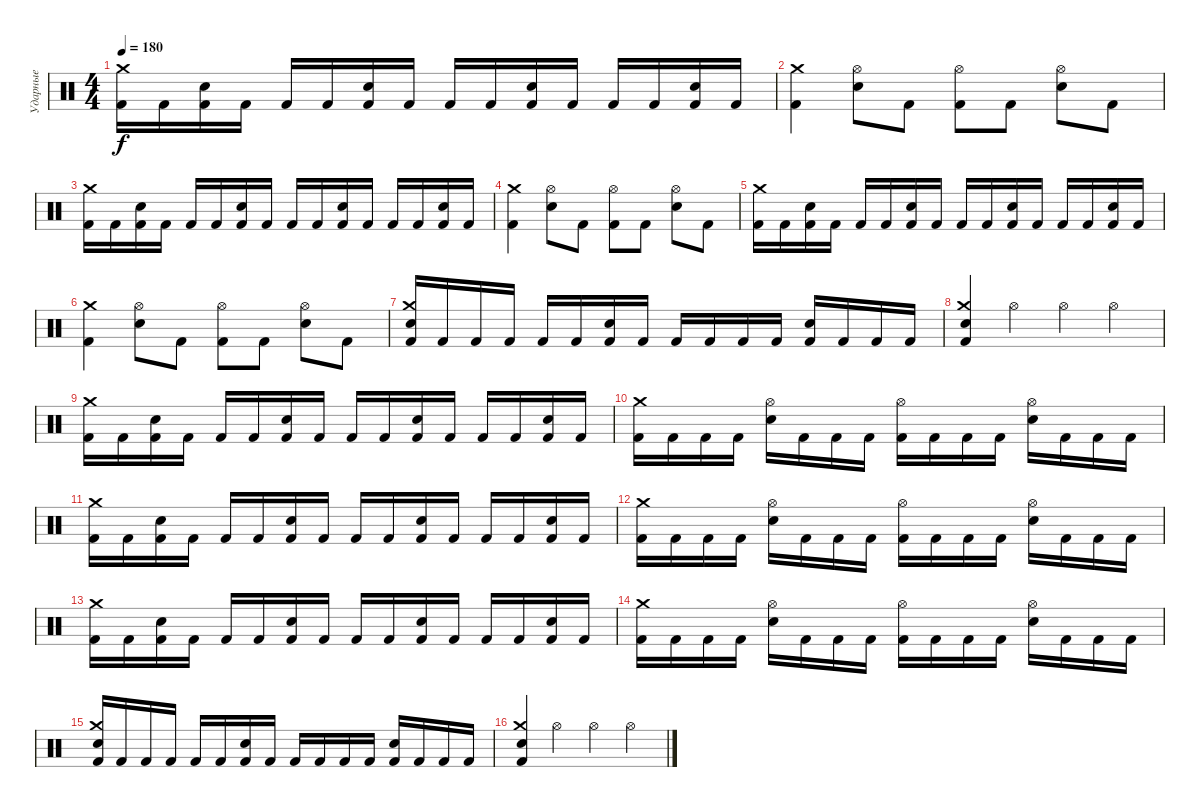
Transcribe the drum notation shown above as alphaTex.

\track ("Ударные" "Ударные") {instrument percussion}
\staff {score}
\articulation defaults
\ts (4 4)
\tempo 180
\clef neutral
\ks c
("Kick (hit) 2" "Crash medium (hit)").16{dy f} "Kick (hit) 2".16 ("Kick (hit) 2" "Electric Snare (hit)").16 "Kick (hit) 2".16 "Kick (hit) 2".16 "Kick (hit) 2".16 ("Kick (hit) 2" "Electric Snare (hit)").16 "Kick (hit) 2".16 "Kick (hit) 2".16 "Kick (hit) 2".16 ("Kick (hit) 2" "Electric Snare (hit)").16 "Kick (hit) 2".16 "Kick (hit) 2".16 "Kick (hit) 2".16 ("Kick (hit) 2" "Electric Snare (hit)").16 "Kick (hit) 2".16 |
("Kick (hit) 2" "Crash medium (hit)").4 ("Electric Snare (hit)" "Hi-Hat (open)").8 "Kick (hit) 2".8 ("Kick (hit) 2" "Hi-Hat (open)").8 "Kick (hit) 2".8 ("Electric Snare (hit)" "Hi-Hat (open)").8 "Kick (hit) 2".8 |
("Kick (hit) 2" "Crash medium (hit)").16 "Kick (hit) 2".16 ("Kick (hit) 2" "Electric Snare (hit)").16 "Kick (hit) 2".16 "Kick (hit) 2".16 "Kick (hit) 2".16 ("Kick (hit) 2" "Electric Snare (hit)").16 "Kick (hit) 2".16 "Kick (hit) 2".16 "Kick (hit) 2".16 ("Kick (hit) 2" "Electric Snare (hit)").16 "Kick (hit) 2".16 "Kick (hit) 2".16 "Kick (hit) 2".16 ("Kick (hit) 2" "Electric Snare (hit)").16 "Kick (hit) 2".16 |
("Kick (hit) 2" "Crash medium (hit)").4 ("Electric Snare (hit)" "Hi-Hat (open)").8 "Kick (hit) 2".8 ("Kick (hit) 2" "Hi-Hat (open)").8 "Kick (hit) 2".8 ("Electric Snare (hit)" "Hi-Hat (open)").8 "Kick (hit) 2".8 |
("Kick (hit) 2" "Crash medium (hit)").16 "Kick (hit) 2".16 ("Kick (hit) 2" "Electric Snare (hit)").16 "Kick (hit) 2".16 "Kick (hit) 2".16 "Kick (hit) 2".16 ("Kick (hit) 2" "Electric Snare (hit)").16 "Kick (hit) 2".16 "Kick (hit) 2".16 "Kick (hit) 2".16 ("Kick (hit) 2" "Electric Snare (hit)").16 "Kick (hit) 2".16 "Kick (hit) 2".16 "Kick (hit) 2".16 ("Kick (hit) 2" "Electric Snare (hit)").16 "Kick (hit) 2".16 |
("Kick (hit) 2" "Crash medium (hit)").4 ("Electric Snare (hit)" "Hi-Hat (open)").8 "Kick (hit) 2".8 ("Kick (hit) 2" "Hi-Hat (open)").8 "Kick (hit) 2".8 ("Electric Snare (hit)" "Hi-Hat (open)").8 "Kick (hit) 2".8 |
("Kick (hit) 2" "Crash medium (hit)" "Electric Snare (hit)").16 "Kick (hit) 2".16 "Kick (hit) 2".16 "Kick (hit) 2".16 "Kick (hit) 2".16 "Kick (hit) 2".16 ("Kick (hit) 2" "Electric Snare (hit)").16 "Kick (hit) 2".16 "Kick (hit) 2".16 "Kick (hit) 2".16 "Kick (hit) 2".16 "Kick (hit) 2".16 ("Kick (hit) 2" "Electric Snare (hit)").16 "Kick (hit) 2".16 "Kick (hit) 2".16 "Kick (hit) 2".16 |
("Electric Snare (hit)" "Crash medium (hit)" "Kick (hit) 2").4 "Hi-Hat (open)".4 "Hi-Hat (open)".4 "Hi-Hat (open)".4 |
("Kick (hit) 2" "Crash medium (hit)").16 "Kick (hit) 2".16 ("Kick (hit) 2" "Electric Snare (hit)").16 "Kick (hit) 2".16 "Kick (hit) 2".16 "Kick (hit) 2".16 ("Kick (hit) 2" "Electric Snare (hit)").16 "Kick (hit) 2".16 "Kick (hit) 2".16 "Kick (hit) 2".16 ("Kick (hit) 2" "Electric Snare (hit)").16 "Kick (hit) 2".16 "Kick (hit) 2".16 "Kick (hit) 2".16 ("Kick (hit) 2" "Electric Snare (hit)").16 "Kick (hit) 2".16 |
("Kick (hit) 2" "Crash medium (hit)").16 "Kick (hit) 2".16 "Kick (hit) 2".16 "Kick (hit) 2".16 ("Electric Snare (hit)" "Hi-Hat (open)").16 "Kick (hit) 2".16 "Kick (hit) 2".16 "Kick (hit) 2".16 ("Kick (hit) 2" "Hi-Hat (open)").16 "Kick (hit) 2".16 "Kick (hit) 2".16 "Kick (hit) 2".16 ("Electric Snare (hit)" "Hi-Hat (open)").16 "Kick (hit) 2".16 "Kick (hit) 2".16 "Kick (hit) 2".16 |
("Kick (hit) 2" "Crash medium (hit)").16 "Kick (hit) 2".16 ("Kick (hit) 2" "Electric Snare (hit)").16 "Kick (hit) 2".16 "Kick (hit) 2".16 "Kick (hit) 2".16 ("Kick (hit) 2" "Electric Snare (hit)").16 "Kick (hit) 2".16 "Kick (hit) 2".16 "Kick (hit) 2".16 ("Kick (hit) 2" "Electric Snare (hit)").16 "Kick (hit) 2".16 "Kick (hit) 2".16 "Kick (hit) 2".16 ("Kick (hit) 2" "Electric Snare (hit)").16 "Kick (hit) 2".16 |
("Kick (hit) 2" "Crash medium (hit)").16 "Kick (hit) 2".16 "Kick (hit) 2".16 "Kick (hit) 2".16 ("Electric Snare (hit)" "Hi-Hat (open)").16 "Kick (hit) 2".16 "Kick (hit) 2".16 "Kick (hit) 2".16 ("Kick (hit) 2" "Hi-Hat (open)").16 "Kick (hit) 2".16 "Kick (hit) 2".16 "Kick (hit) 2".16 ("Electric Snare (hit)" "Hi-Hat (open)").16 "Kick (hit) 2".16 "Kick (hit) 2".16 "Kick (hit) 2".16 |
("Kick (hit) 2" "Crash medium (hit)").16 "Kick (hit) 2".16 ("Kick (hit) 2" "Electric Snare (hit)").16 "Kick (hit) 2".16 "Kick (hit) 2".16 "Kick (hit) 2".16 ("Kick (hit) 2" "Electric Snare (hit)").16 "Kick (hit) 2".16 "Kick (hit) 2".16 "Kick (hit) 2".16 ("Kick (hit) 2" "Electric Snare (hit)").16 "Kick (hit) 2".16 "Kick (hit) 2".16 "Kick (hit) 2".16 ("Kick (hit) 2" "Electric Snare (hit)").16 "Kick (hit) 2".16 |
("Kick (hit) 2" "Crash medium (hit)").16 "Kick (hit) 2".16 "Kick (hit) 2".16 "Kick (hit) 2".16 ("Electric Snare (hit)" "Hi-Hat (open)").16 "Kick (hit) 2".16 "Kick (hit) 2".16 "Kick (hit) 2".16 ("Kick (hit) 2" "Hi-Hat (open)").16 "Kick (hit) 2".16 "Kick (hit) 2".16 "Kick (hit) 2".16 ("Electric Snare (hit)" "Hi-Hat (open)").16 "Kick (hit) 2".16 "Kick (hit) 2".16 "Kick (hit) 2".16 |
("Kick (hit) 2" "Crash medium (hit)" "Electric Snare (hit)").16 "Kick (hit) 2".16 "Kick (hit) 2".16 "Kick (hit) 2".16 "Kick (hit) 2".16 "Kick (hit) 2".16 ("Kick (hit) 2" "Electric Snare (hit)").16 "Kick (hit) 2".16 "Kick (hit) 2".16 "Kick (hit) 2".16 "Kick (hit) 2".16 "Kick (hit) 2".16 ("Kick (hit) 2" "Electric Snare (hit)").16 "Kick (hit) 2".16 "Kick (hit) 2".16 "Kick (hit) 2".16 |
("Electric Snare (hit)" "Crash medium (hit)" "Kick (hit) 2").4 "Hi-Hat (open)".4 "Hi-Hat (open)".4 "Hi-Hat (open)".4
